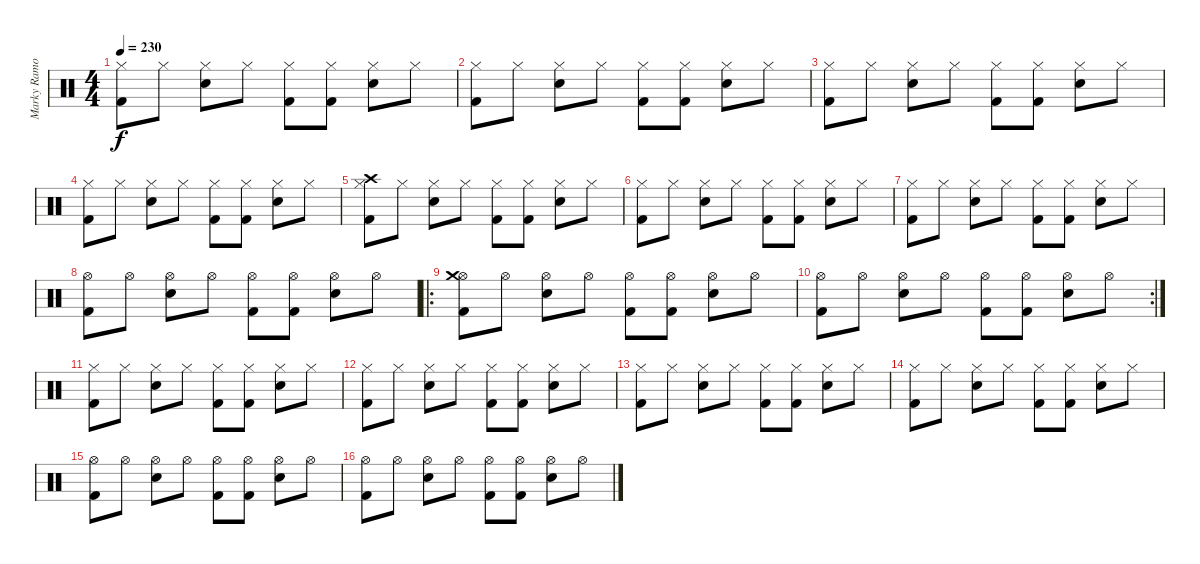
\track ("Marky Ramone" "Marky Ramo") {instrument percussion}
\staff {score}
\articulation defaults
\ts (4 4)
\tempo 230
\clef neutral
\ks c
("Hi-Hat (closed)" "Kick (hit) 2").8{dy f} "Hi-Hat (closed)".8 ("Hi-Hat (closed)" "Electric Snare (hit)").8 "Hi-Hat (closed)".8 ("Hi-Hat (closed)" "Kick (hit) 2").8 ("Hi-Hat (closed)" "Kick (hit) 2").8 ("Hi-Hat (closed)" "Electric Snare (hit)").8 "Hi-Hat (closed)".8 |
("Hi-Hat (closed)" "Kick (hit) 2").8 "Hi-Hat (closed)".8 ("Hi-Hat (closed)" "Electric Snare (hit)").8 "Hi-Hat (closed)".8 ("Hi-Hat (closed)" "Kick (hit) 2").8 ("Hi-Hat (closed)" "Kick (hit) 2").8 ("Hi-Hat (closed)" "Electric Snare (hit)").8 "Hi-Hat (closed)".8 |
("Hi-Hat (closed)" "Kick (hit) 2").8 "Hi-Hat (closed)".8 ("Hi-Hat (closed)" "Electric Snare (hit)").8 "Hi-Hat (closed)".8 ("Hi-Hat (closed)" "Kick (hit) 2").8 ("Hi-Hat (closed)" "Kick (hit) 2").8 ("Hi-Hat (closed)" "Electric Snare (hit)").8 "Hi-Hat (closed)".8 |
("Hi-Hat (closed)" "Kick (hit) 2").8 "Hi-Hat (closed)".8 ("Hi-Hat (closed)" "Electric Snare (hit)").8 "Hi-Hat (closed)".8 ("Hi-Hat (closed)" "Kick (hit) 2").8 ("Hi-Hat (closed)" "Kick (hit) 2").8 ("Hi-Hat (closed)" "Electric Snare (hit)").8 "Hi-Hat (closed)".8 |
("Hi-Hat (closed)" "Kick (hit) 2" "Crash high (hit)").8 "Hi-Hat (closed)".8 ("Hi-Hat (closed)" "Electric Snare (hit)").8 "Hi-Hat (closed)".8 ("Hi-Hat (closed)" "Kick (hit) 2").8 ("Hi-Hat (closed)" "Kick (hit) 2").8 ("Hi-Hat (closed)" "Electric Snare (hit)").8 "Hi-Hat (closed)".8 |
("Hi-Hat (closed)" "Kick (hit) 2").8 "Hi-Hat (closed)".8 ("Hi-Hat (closed)" "Electric Snare (hit)").8 "Hi-Hat (closed)".8 ("Hi-Hat (closed)" "Kick (hit) 2").8 ("Hi-Hat (closed)" "Kick (hit) 2").8 ("Hi-Hat (closed)" "Electric Snare (hit)").8 "Hi-Hat (closed)".8 |
("Hi-Hat (closed)" "Kick (hit) 2").8 "Hi-Hat (closed)".8 ("Hi-Hat (closed)" "Electric Snare (hit)").8 "Hi-Hat (closed)".8 ("Hi-Hat (closed)" "Kick (hit) 2").8 ("Hi-Hat (closed)" "Kick (hit) 2").8 ("Hi-Hat (closed)" "Electric Snare (hit)").8 "Hi-Hat (closed)".8 |
("Hi-Hat (open)" "Kick (hit) 2").8 "Hi-Hat (open)".8 ("Hi-Hat (open)" "Electric Snare (hit)").8 "Hi-Hat (open)".8 ("Hi-Hat (open)" "Kick (hit) 2").8 ("Hi-Hat (open)" "Kick (hit) 2").8 ("Hi-Hat (open)" "Electric Snare (hit)").8 "Hi-Hat (open)".8 |
\ro
("Hi-Hat (open)" "Kick (hit) 2" "Crash medium (hit)").8 "Hi-Hat (open)".8 ("Hi-Hat (open)" "Electric Snare (hit)").8 "Hi-Hat (open)".8 ("Hi-Hat (open)" "Kick (hit) 2").8 ("Hi-Hat (open)" "Kick (hit) 2").8 ("Hi-Hat (open)" "Electric Snare (hit)").8 "Hi-Hat (open)".8 |
\rc 2
("Hi-Hat (open)" "Kick (hit) 2").8 "Hi-Hat (open)".8 ("Hi-Hat (open)" "Electric Snare (hit)").8 "Hi-Hat (open)".8 ("Hi-Hat (open)" "Kick (hit) 2").8 ("Hi-Hat (open)" "Kick (hit) 2").8 ("Hi-Hat (open)" "Electric Snare (hit)").8 "Hi-Hat (open)".8 |
("Hi-Hat (closed)" "Kick (hit) 2").8 "Hi-Hat (closed)".8 ("Hi-Hat (closed)" "Electric Snare (hit)").8 "Hi-Hat (closed)".8 ("Hi-Hat (closed)" "Kick (hit) 2").8 ("Hi-Hat (closed)" "Kick (hit) 2").8 ("Hi-Hat (closed)" "Electric Snare (hit)").8 "Hi-Hat (closed)".8 |
("Hi-Hat (closed)" "Kick (hit) 2").8 "Hi-Hat (closed)".8 ("Hi-Hat (closed)" "Electric Snare (hit)").8 "Hi-Hat (closed)".8 ("Hi-Hat (closed)" "Kick (hit) 2").8 ("Hi-Hat (closed)" "Kick (hit) 2").8 ("Hi-Hat (closed)" "Electric Snare (hit)").8 "Hi-Hat (closed)".8 |
("Hi-Hat (closed)" "Kick (hit) 2").8 "Hi-Hat (closed)".8 ("Hi-Hat (closed)" "Electric Snare (hit)").8 "Hi-Hat (closed)".8 ("Hi-Hat (closed)" "Kick (hit) 2").8 ("Hi-Hat (closed)" "Kick (hit) 2").8 ("Hi-Hat (closed)" "Electric Snare (hit)").8 "Hi-Hat (closed)".8 |
("Hi-Hat (closed)" "Kick (hit) 2").8 "Hi-Hat (closed)".8 ("Hi-Hat (closed)" "Electric Snare (hit)").8 "Hi-Hat (closed)".8 ("Hi-Hat (closed)" "Kick (hit) 2").8 ("Hi-Hat (closed)" "Kick (hit) 2").8 ("Hi-Hat (closed)" "Electric Snare (hit)").8 "Hi-Hat (closed)".8 |
("Hi-Hat (open)" "Kick (hit) 2").8 "Hi-Hat (open)".8 ("Hi-Hat (open)" "Electric Snare (hit)").8 "Hi-Hat (open)".8 ("Hi-Hat (open)" "Kick (hit) 2").8 ("Hi-Hat (open)" "Kick (hit) 2").8 ("Hi-Hat (open)" "Electric Snare (hit)").8 "Hi-Hat (open)".8 |
("Hi-Hat (open)" "Kick (hit) 2").8 "Hi-Hat (open)".8 ("Hi-Hat (open)" "Electric Snare (hit)").8 "Hi-Hat (open)".8 ("Hi-Hat (open)" "Kick (hit) 2").8 ("Hi-Hat (open)" "Kick (hit) 2").8 ("Hi-Hat (open)" "Electric Snare (hit)").8 "Hi-Hat (open)".8
